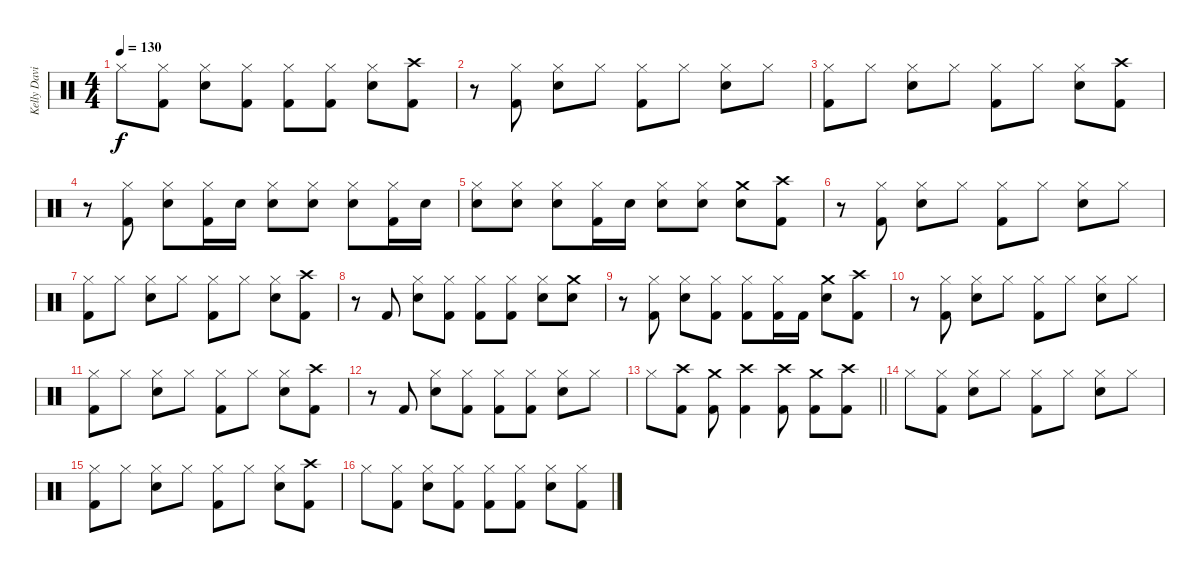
\track ("Kelly David Smith" "Kelly Davi") {instrument percussion}
\staff {score}
\articulation defaults
\ts (4 4)
\tempo 130
\clef neutral
\ks c "Hi-Hat (closed)".8{dy f}
("Hi-Hat (closed)" "Kick (hit) 2").8 ("Hi-Hat (closed)" "Snare (hit) 2").8 ("Hi-Hat (closed)" "Kick (hit) 2").8 ("Hi-Hat (closed)" "Kick (hit) 2").8 ("Hi-Hat (closed)" "Kick (hit) 2").8 ("Hi-Hat (closed)" "Snare (hit) 2").8 ("Crash high (hit)" "Kick (hit) 2").8 |
r.8 ("Hi-Hat (closed)" "Kick (hit) 2").8 ("Hi-Hat (closed)" "Snare (hit) 2").8 "Hi-Hat (closed)".8 ("Hi-Hat (closed)" "Kick (hit) 2").8 "Hi-Hat (closed)".8 ("Hi-Hat (closed)" "Snare (hit) 2").8 "Hi-Hat (closed)".8 |
("Hi-Hat (closed)" "Kick (hit) 2").8 "Hi-Hat (closed)".8 ("Hi-Hat (closed)" "Snare (hit) 2").8 "Hi-Hat (closed)".8 ("Hi-Hat (closed)" "Kick (hit) 2").8 "Hi-Hat (closed)".8 ("Hi-Hat (closed)" "Snare (hit) 2").8 ("Crash high (hit)" "Kick (hit) 2").8 |
r.8 ("Hi-Hat (closed)" "Kick (hit) 2").8 ("Hi-Hat (closed)" "Snare (hit) 2").8 ("Hi-Hat (closed)" "Kick (hit) 2").16 "Snare (hit) 2".16 ("Hi-Hat (closed)" "Snare (hit) 2").8 ("Hi-Hat (closed)" "Snare (hit) 2").8 ("Hi-Hat (closed)" "Snare (hit) 2").8 ("Hi-Hat (closed)" "Kick (hit) 2").16 "Snare (hit) 2".16 |
("Hi-Hat (closed)" "Snare (hit) 2").8 ("Hi-Hat (closed)" "Snare (hit) 2").8 ("Hi-Hat (closed)" "Snare (hit) 2").8 ("Hi-Hat (closed)" "Kick (hit) 2").16 "Snare (hit) 2".16 ("Hi-Hat (closed)" "Snare (hit) 2").8 ("Hi-Hat (closed)" "Snare (hit) 2").8 ("Crash medium (hit)" "Snare (hit) 2").8 ("Crash high (hit)" "Kick (hit) 2").8 |
r.8 ("Hi-Hat (closed)" "Kick (hit) 2").8 ("Hi-Hat (closed)" "Snare (hit) 2").8 "Hi-Hat (closed)".8 ("Hi-Hat (closed)" "Kick (hit) 2").8 "Hi-Hat (closed)".8 ("Hi-Hat (closed)" "Snare (hit) 2").8 "Hi-Hat (closed)".8 |
("Hi-Hat (closed)" "Kick (hit) 2").8 "Hi-Hat (closed)".8 ("Hi-Hat (closed)" "Snare (hit) 2").8 "Hi-Hat (closed)".8 ("Hi-Hat (closed)" "Kick (hit) 2").8 "Hi-Hat (closed)".8 ("Hi-Hat (closed)" "Snare (hit) 2").8 ("Crash high (hit)" "Kick (hit) 2").8 |
r.8 "Kick (hit) 2".8 ("Hi-Hat (closed)" "Snare (hit) 2").8 ("Hi-Hat (closed)" "Kick (hit) 2").8 ("Hi-Hat (closed)" "Kick (hit) 2").8 ("Hi-Hat (closed)" "Kick (hit) 2").8 ("Hi-Hat (closed)" "Snare (hit) 2").8 ("Crash medium (hit)" "Snare (hit) 2").8 |
r.8 ("Hi-Hat (closed)" "Kick (hit) 2").8 ("Hi-Hat (closed)" "Snare (hit) 2").8 ("Hi-Hat (closed)" "Kick (hit) 2").8 ("Hi-Hat (closed)" "Kick (hit) 2").8 ("Hi-Hat (closed)" "Kick (hit) 2").16 "Kick (hit) 2".16 ("Crash medium (hit)" "Snare (hit) 2").8 ("Crash high (hit)" "Kick (hit) 2").8 |
r.8 ("Hi-Hat (closed)" "Kick (hit) 2").8 ("Hi-Hat (closed)" "Snare (hit) 2").8 "Hi-Hat (closed)".8 ("Hi-Hat (closed)" "Kick (hit) 2").8 "Hi-Hat (closed)".8 ("Hi-Hat (closed)" "Snare (hit) 2").8 "Hi-Hat (closed)".8 |
("Hi-Hat (closed)" "Kick (hit) 2").8 "Hi-Hat (closed)".8 ("Hi-Hat (closed)" "Snare (hit) 2").8 "Hi-Hat (closed)".8 ("Hi-Hat (closed)" "Kick (hit) 2").8 "Hi-Hat (closed)".8 ("Hi-Hat (closed)" "Snare (hit) 2").8 ("Crash high (hit)" "Kick (hit) 2").8 |
r.8 "Kick (hit) 2".8 ("Hi-Hat (closed)" "Snare (hit) 2").8 ("Hi-Hat (closed)" "Kick (hit) 2").8 ("Hi-Hat (closed)" "Kick (hit) 2").8 ("Hi-Hat (closed)" "Kick (hit) 2").8 ("Hi-Hat (closed)" "Snare (hit) 2").8 "Hi-Hat (closed)".8 |
\barLineRight lightlight "Hi-Hat (closed)".8
("Crash high (hit)" "Kick (hit) 2").8 ("Crash medium (hit)" "Kick (hit) 2").8 ("Crash high (hit)" "Kick (hit) 2").4 ("Crash high (hit)" "Kick (hit) 2").8 ("Crash medium (hit)" "Kick (hit) 2").8 ("Crash high (hit)" "Kick (hit) 2").8 |
"Hi-Hat (closed)".8 ("Hi-Hat (closed)" "Kick (hit) 2").8 ("Hi-Hat (closed)" "Snare (hit) 2").8 "Hi-Hat (closed)".8 ("Hi-Hat (closed)" "Kick (hit) 2").8 "Hi-Hat (closed)".8 ("Hi-Hat (closed)" "Snare (hit) 2").8 "Hi-Hat (closed)".8 |
("Hi-Hat (closed)" "Kick (hit) 2").8 "Hi-Hat (closed)".8 ("Hi-Hat (closed)" "Snare (hit) 2").8 "Hi-Hat (closed)".8 ("Hi-Hat (closed)" "Kick (hit) 2").8 "Hi-Hat (closed)".8 ("Hi-Hat (closed)" "Snare (hit) 2").8 ("Crash high (hit)" "Kick (hit) 2").8 |
"Hi-Hat (closed)".8 ("Hi-Hat (closed)" "Kick (hit) 2").8 ("Hi-Hat (closed)" "Snare (hit) 2").8 ("Hi-Hat (closed)" "Kick (hit) 2").8 ("Hi-Hat (closed)" "Kick (hit) 2").8 ("Hi-Hat (closed)" "Kick (hit) 2").8 ("Hi-Hat (closed)" "Snare (hit) 2").8 ("Hi-Hat (closed)" "Kick (hit) 2").8
